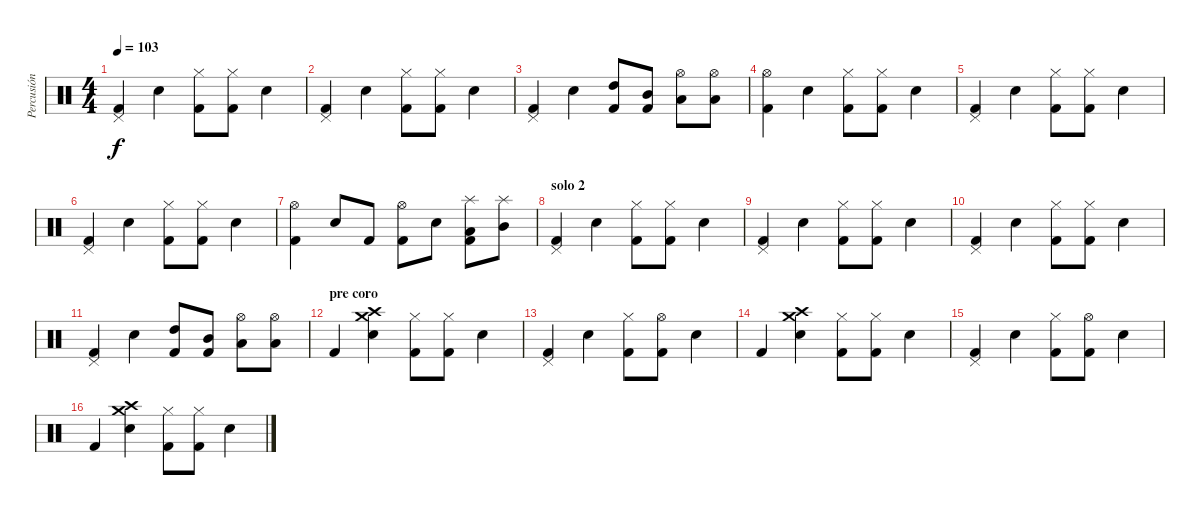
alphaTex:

\track ("Percusión" "Percusión") {instrument percussion}
\staff {score}
\articulation defaults
\ts (4 4)
\tempo 103
\clef neutral
\ks c
("Pedal Hi-Hat (hit)" "Kick (hit) 2").4{dy f} "Electric Snare (hit)".4 ("Hi-Hat (closed)" "Kick (hit) 2").8 ("Hi-Hat (closed)" "Kick (hit) 2").8 "Electric Snare (hit)".4 |
("Pedal Hi-Hat (hit)" "Kick (hit) 2").4 "Electric Snare (hit)".4 ("Hi-Hat (closed)" "Kick (hit) 2").8 ("Hi-Hat (closed)" "Kick (hit) 2").8 "Electric Snare (hit)".4 |
("Pedal Hi-Hat (hit)" "Kick (hit) 2").4 "Electric Snare (hit)".4 ("High Tom (hit)" "Kick (hit) 2").8 ("Mid Tom (hit)" "Kick (hit) 2").8 ("Low Tom (hit)" "Hi-Hat (open)").8 ("Low Tom (hit)" "Hi-Hat (open)").8 |
("Hi-Hat (open)" "Kick (hit) 2").4 "Electric Snare (hit)".4 ("Hi-Hat (closed)" "Kick (hit) 2").8 ("Hi-Hat (closed)" "Kick (hit) 2").8 "Electric Snare (hit)".4 |
("Pedal Hi-Hat (hit)" "Kick (hit) 2").4 "Electric Snare (hit)".4 ("Hi-Hat (closed)" "Kick (hit) 2").8 ("Hi-Hat (closed)" "Kick (hit) 2").8 "Electric Snare (hit)".4 |
("Pedal Hi-Hat (hit)" "Kick (hit) 2").4 "Electric Snare (hit)".4 ("Hi-Hat (closed)" "Kick (hit) 2").8 ("Hi-Hat (closed)" "Kick (hit) 2").8 "Electric Snare (hit)".4 |
("Hi-Hat (open)" "Kick (hit) 2").4 "Electric Snare (hit)".8 "Kick (hit) 2".8 ("Hi-Hat (open)" "Kick (hit) 2").8 "Electric Snare (hit)".8 ("Splash (hit)" "Low Tom (hit)" "Kick (hit) 2").8 ("Splash (hit)" "Mid Tom (hit)").8 |
\section ("" "solo 2")
("Pedal Hi-Hat (hit)" "Kick (hit) 2").4 "Electric Snare (hit)".4 ("Hi-Hat (closed)" "Kick (hit) 2").8 ("Hi-Hat (closed)" "Kick (hit) 2").8 "Electric Snare (hit)".4 |
("Pedal Hi-Hat (hit)" "Kick (hit) 2").4 "Electric Snare (hit)".4 ("Hi-Hat (closed)" "Kick (hit) 2").8 ("Hi-Hat (closed)" "Kick (hit) 2").8 "Electric Snare (hit)".4 |
("Pedal Hi-Hat (hit)" "Kick (hit) 2").4 "Electric Snare (hit)".4 ("Hi-Hat (closed)" "Kick (hit) 2").8 ("Hi-Hat (closed)" "Kick (hit) 2").8 "Electric Snare (hit)".4 |
("Pedal Hi-Hat (hit)" "Kick (hit) 2").4 "Electric Snare (hit)".4 ("High Tom (hit)" "Kick (hit) 2").8 ("Mid Tom (hit)" "Kick (hit) 2").8 ("Low Tom (hit)" "Hi-Hat (open)").8 ("Low Tom (hit)" "Hi-Hat (open)").8 |
\section ("" "pre coro")
"Kick (hit) 2".4 ("Crash medium (hit)" "Crash high (hit)" "Electric Snare (hit)").4 ("Hi-Hat (closed)" "Kick (hit) 2").8 ("Hi-Hat (closed)" "Kick (hit) 2").8 "Electric Snare (hit)".4 |
("Pedal Hi-Hat (hit)" "Kick (hit) 2").4 "Electric Snare (hit)".4 ("Hi-Hat (closed)" "Kick (hit) 2").8 ("Hi-Hat (open)" "Kick (hit) 2").8 "Electric Snare (hit)".4 |
"Kick (hit) 2".4 ("Crash medium (hit)" "Crash high (hit)" "Electric Snare (hit)").4 ("Hi-Hat (closed)" "Kick (hit) 2").8 ("Hi-Hat (closed)" "Kick (hit) 2").8 "Electric Snare (hit)".4 |
("Pedal Hi-Hat (hit)" "Kick (hit) 2").4 "Electric Snare (hit)".4 ("Hi-Hat (closed)" "Kick (hit) 2").8 ("Hi-Hat (open)" "Kick (hit) 2").8 "Electric Snare (hit)".4 |
"Kick (hit) 2".4 ("Crash medium (hit)" "Crash high (hit)" "Electric Snare (hit)").4 ("Hi-Hat (closed)" "Kick (hit) 2").8 ("Hi-Hat (closed)" "Kick (hit) 2").8 "Electric Snare (hit)".4
